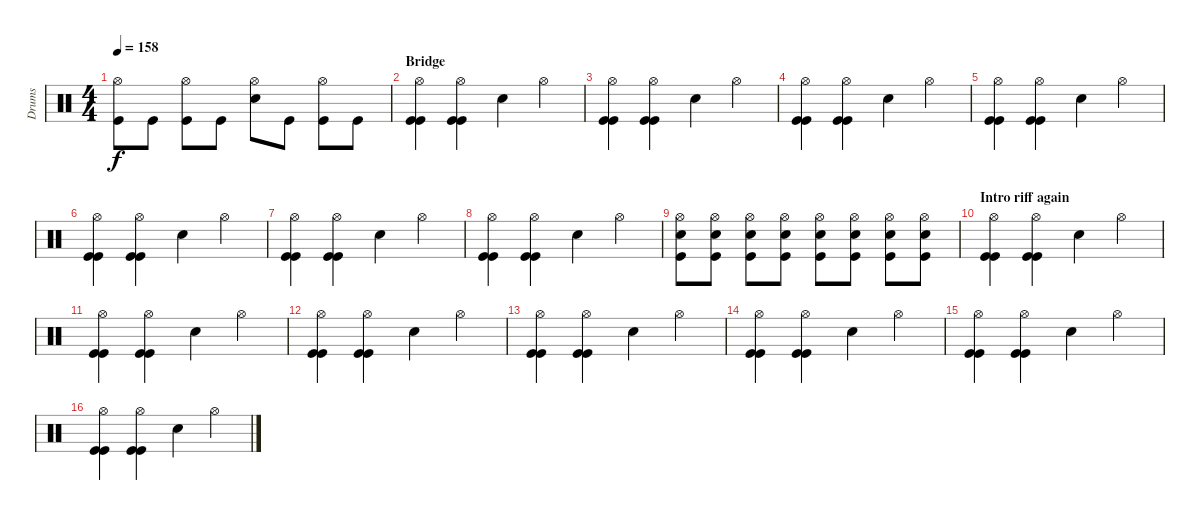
\track ("Drums" "Drums") {instrument percussion}
\staff {score}
\articulation defaults
\ts (4 4)
\tempo 158
\clef neutral
\ks c
("Hi-Hat (open)" "Kick (hit)").8{dy f} "Kick (hit)".8 ("Hi-Hat (open)" "Kick (hit)").8 "Kick (hit)".8 ("Hi-Hat (open)" "Snare (hit) 2").8 "Kick (hit)".8 ("Hi-Hat (open)" "Kick (hit)").8 "Kick (hit)".8 |
\section ("" "Bridge")
("Hi-Hat (open)" "Kick (hit)" "Kick (hit)").4 ("Hi-Hat (open)" "Kick (hit)" "Kick (hit)").4 "Electric Snare (hit)".4 "Hi-Hat (open)".4 |
("Hi-Hat (open)" "Kick (hit)" "Kick (hit)").4 ("Hi-Hat (open)" "Kick (hit)" "Kick (hit)").4 "Electric Snare (hit)".4 "Hi-Hat (open)".4 |
("Hi-Hat (open)" "Kick (hit)" "Kick (hit)").4 ("Hi-Hat (open)" "Kick (hit)" "Kick (hit)").4 "Electric Snare (hit)".4 "Hi-Hat (open)".4 |
("Hi-Hat (open)" "Kick (hit)" "Kick (hit)").4 ("Hi-Hat (open)" "Kick (hit)" "Kick (hit)").4 "Electric Snare (hit)".4 "Hi-Hat (open)".4 |
("Hi-Hat (open)" "Kick (hit)" "Kick (hit)").4 ("Hi-Hat (open)" "Kick (hit)" "Kick (hit)").4 "Electric Snare (hit)".4 "Hi-Hat (open)".4 |
("Hi-Hat (open)" "Kick (hit)" "Kick (hit)").4 ("Hi-Hat (open)" "Kick (hit)" "Kick (hit)").4 "Electric Snare (hit)".4 "Hi-Hat (open)".4 |
("Hi-Hat (open)" "Kick (hit)" "Kick (hit)").4 ("Hi-Hat (open)" "Kick (hit)" "Kick (hit)").4 "Electric Snare (hit)".4 "Hi-Hat (open)".4 |
("Hi-Hat (open)" "Snare (hit) 2" "Kick (hit)").8 ("Hi-Hat (open)" "Snare (hit) 2" "Kick (hit)").8 ("Hi-Hat (open)" "Snare (hit) 2" "Kick (hit)").8 ("Hi-Hat (open)" "Snare (hit) 2" "Kick (hit)").8 ("Hi-Hat (open)" "Snare (hit) 2" "Kick (hit)").8 ("Hi-Hat (open)" "Snare (hit) 2" "Kick (hit)").8 ("Hi-Hat (open)" "Snare (hit) 2" "Kick (hit)").8 ("Hi-Hat (open)" "Snare (hit) 2" "Kick (hit)").8 |
\section ("" "Intro riff again")
("Hi-Hat (open)" "Kick (hit)" "Kick (hit)").4 ("Hi-Hat (open)" "Kick (hit)" "Kick (hit)").4 "Electric Snare (hit)".4 "Hi-Hat (open)".4 |
("Hi-Hat (open)" "Kick (hit)" "Kick (hit)").4 ("Hi-Hat (open)" "Kick (hit)" "Kick (hit)").4 "Electric Snare (hit)".4 "Hi-Hat (open)".4 |
("Hi-Hat (open)" "Kick (hit)" "Kick (hit)").4 ("Hi-Hat (open)" "Kick (hit)" "Kick (hit)").4 "Electric Snare (hit)".4 "Hi-Hat (open)".4 |
("Hi-Hat (open)" "Kick (hit)" "Kick (hit)").4 ("Hi-Hat (open)" "Kick (hit)" "Kick (hit)").4 "Electric Snare (hit)".4 "Hi-Hat (open)".4 |
("Hi-Hat (open)" "Kick (hit)" "Kick (hit)").4 ("Hi-Hat (open)" "Kick (hit)" "Kick (hit)").4 "Electric Snare (hit)".4 "Hi-Hat (open)".4 |
("Hi-Hat (open)" "Kick (hit)" "Kick (hit)").4 ("Hi-Hat (open)" "Kick (hit)" "Kick (hit)").4 "Electric Snare (hit)".4 "Hi-Hat (open)".4 |
("Hi-Hat (open)" "Kick (hit)" "Kick (hit)").4 ("Hi-Hat (open)" "Kick (hit)" "Kick (hit)").4 "Electric Snare (hit)".4 "Hi-Hat (open)".4
